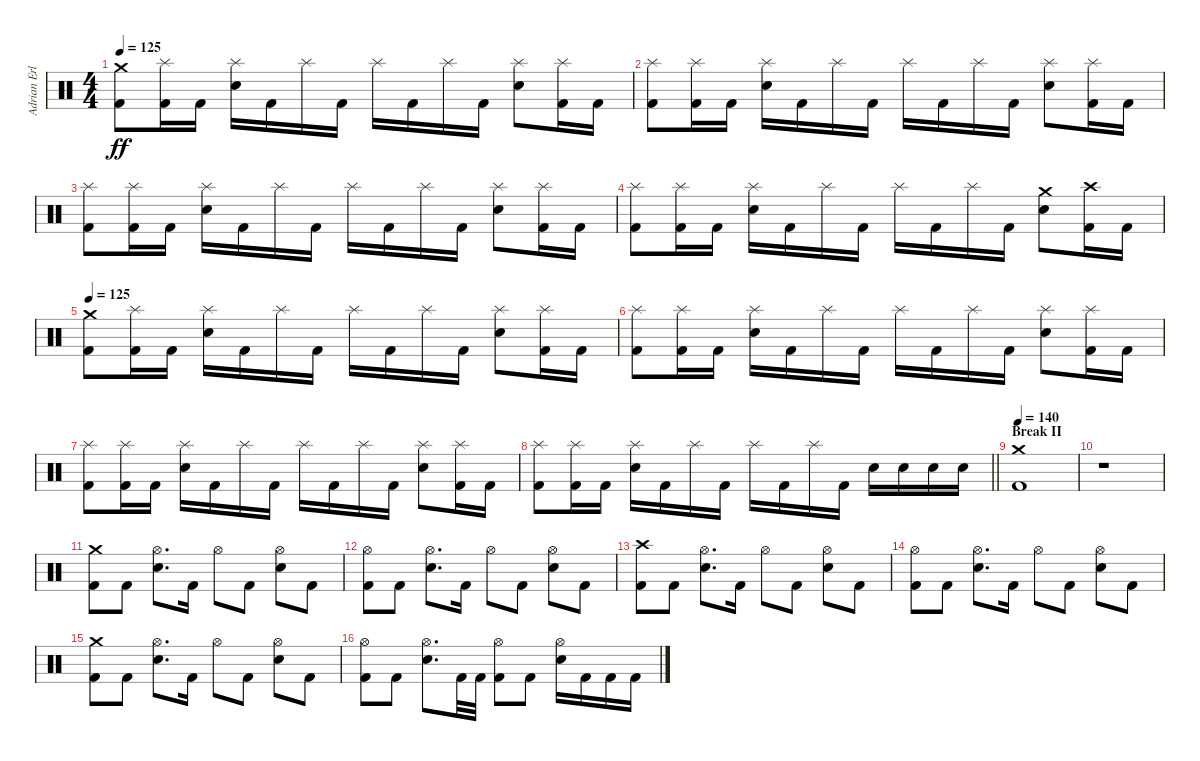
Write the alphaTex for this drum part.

\track ("Adrian Erlandsson" "Adrian Erl") {instrument percussion}
\staff {score}
\articulation defaults
\ts (4 4)
\tempo 125
\clef neutral
\ks c
("Kick (hit) 2" "Crash medium (hit)").8{dy ff} ("Kick (hit) 2" "Splash (hit)").16 "Kick (hit) 2".16 ("Electric Snare (hit)" "Splash (hit)").16 "Kick (hit) 2".16 "Splash (hit)".16 "Kick (hit) 2".16 "Splash (hit)".16 "Kick (hit) 2".16 "Splash (hit)".16 "Kick (hit) 2".16 ("Electric Snare (hit)" "Splash (hit)").8 ("Kick (hit) 2" "Splash (hit)").16 "Kick (hit) 2".16 |
("Kick (hit) 2" "Splash (hit)").8 ("Kick (hit) 2" "Splash (hit)").16 "Kick (hit) 2".16 ("Electric Snare (hit)" "Splash (hit)").16 "Kick (hit) 2".16 "Splash (hit)".16 "Kick (hit) 2".16 "Splash (hit)".16 "Kick (hit) 2".16 "Splash (hit)".16 "Kick (hit) 2".16 ("Electric Snare (hit)" "Splash (hit)").8 ("Kick (hit) 2" "Splash (hit)").16 "Kick (hit) 2".16 |
("Kick (hit) 2" "Splash (hit)").8 ("Kick (hit) 2" "Splash (hit)").16 "Kick (hit) 2".16 ("Electric Snare (hit)" "Splash (hit)").16 "Kick (hit) 2".16 "Splash (hit)".16 "Kick (hit) 2".16 "Splash (hit)".16 "Kick (hit) 2".16 "Splash (hit)".16 "Kick (hit) 2".16 ("Electric Snare (hit)" "Splash (hit)").8 ("Kick (hit) 2" "Splash (hit)").16 "Kick (hit) 2".16 |
("Kick (hit) 2" "Splash (hit)").8 ("Kick (hit) 2" "Splash (hit)").16 "Kick (hit) 2".16 ("Electric Snare (hit)" "Splash (hit)").16 "Kick (hit) 2".16 "Splash (hit)".16 "Kick (hit) 2".16 "Splash (hit)".16 "Kick (hit) 2".16 "Splash (hit)".16 "Kick (hit) 2".16 ("Electric Snare (hit)" "Crash medium (hit)").8 ("Kick (hit) 2" "Crash high (hit)").16 "Kick (hit) 2".16 |
\tempo 125
("Kick (hit) 2" "Crash medium (hit)").8 ("Kick (hit) 2" "Splash (hit)").16 "Kick (hit) 2".16 ("Electric Snare (hit)" "Splash (hit)").16 "Kick (hit) 2".16 "Splash (hit)".16 "Kick (hit) 2".16 "Splash (hit)".16 "Kick (hit) 2".16 "Splash (hit)".16 "Kick (hit) 2".16 ("Electric Snare (hit)" "Splash (hit)").8 ("Kick (hit) 2" "Splash (hit)").16 "Kick (hit) 2".16 |
("Kick (hit) 2" "Splash (hit)").8 ("Kick (hit) 2" "Splash (hit)").16 "Kick (hit) 2".16 ("Electric Snare (hit)" "Splash (hit)").16 "Kick (hit) 2".16 "Splash (hit)".16 "Kick (hit) 2".16 "Splash (hit)".16 "Kick (hit) 2".16 "Splash (hit)".16 "Kick (hit) 2".16 ("Electric Snare (hit)" "Splash (hit)").8 ("Kick (hit) 2" "Splash (hit)").16 "Kick (hit) 2".16 |
("Kick (hit) 2" "Splash (hit)").8 ("Kick (hit) 2" "Splash (hit)").16 "Kick (hit) 2".16 ("Electric Snare (hit)" "Splash (hit)").16 "Kick (hit) 2".16 "Splash (hit)".16 "Kick (hit) 2".16 "Splash (hit)".16 "Kick (hit) 2".16 "Splash (hit)".16 "Kick (hit) 2".16 ("Electric Snare (hit)" "Splash (hit)").8 ("Kick (hit) 2" "Splash (hit)").16 "Kick (hit) 2".16 |
\barLineRight lightlight
("Kick (hit) 2" "Splash (hit)").8 ("Kick (hit) 2" "Splash (hit)").16 "Kick (hit) 2".16 ("Electric Snare (hit)" "Splash (hit)").16 "Kick (hit) 2".16 "Splash (hit)".16 "Kick (hit) 2".16 "Splash (hit)".16 "Kick (hit) 2".16 "Splash (hit)".16 "Kick (hit) 2".16 "Electric Snare (hit)".16 "Electric Snare (hit)".16 "Electric Snare (hit)".16 "Electric Snare (hit)".16 |
\section ("" "Break II")
\tempo 140
("Kick (hit) 2" "Crash medium (hit)").1 |
r.1 |
("Kick (hit) 2" "Crash medium (hit)").8 "Kick (hit) 2".8 ("Electric Snare (hit)" "Hi-Hat (open)").8{d} "Kick (hit) 2".16 "Hi-Hat (open)".8 "Kick (hit) 2".8 ("Electric Snare (hit)" "Hi-Hat (open)").8 "Kick (hit) 2".8 |
("Kick (hit) 2" "Hi-Hat (open)").8 "Kick (hit) 2".8 ("Electric Snare (hit)" "Hi-Hat (open)").8{d} "Kick (hit) 2".16 "Hi-Hat (open)".8 "Kick (hit) 2".8 ("Electric Snare (hit)" "Hi-Hat (open)").8 "Kick (hit) 2".8 |
("Kick (hit) 2" "Crash high (hit)").8 "Kick (hit) 2".8 ("Electric Snare (hit)" "Hi-Hat (open)").8{d} "Kick (hit) 2".16 "Hi-Hat (open)".8 "Kick (hit) 2".8 ("Electric Snare (hit)" "Hi-Hat (open)").8 "Kick (hit) 2".8 |
("Kick (hit) 2" "Hi-Hat (open)").8 "Kick (hit) 2".8 ("Electric Snare (hit)" "Hi-Hat (open)").8{d} "Kick (hit) 2".16 "Hi-Hat (open)".8 "Kick (hit) 2".8 ("Electric Snare (hit)" "Hi-Hat (open)").8 "Kick (hit) 2".8 |
("Kick (hit) 2" "Crash medium (hit)").8 "Kick (hit) 2".8 ("Electric Snare (hit)" "Hi-Hat (open)").8{d} "Kick (hit) 2".16 "Hi-Hat (open)".8 "Kick (hit) 2".8 ("Electric Snare (hit)" "Hi-Hat (open)").8 "Kick (hit) 2".8 |
("Kick (hit) 2" "Hi-Hat (open)").8 "Kick (hit) 2".8 ("Electric Snare (hit)" "Hi-Hat (open)").8{d} "Kick (hit) 2".32 "Kick (hit) 2".32 ("Kick (hit) 2" "Hi-Hat (open)").8 "Kick (hit) 2".8 ("Electric Snare (hit)" "Hi-Hat (open)").16 "Kick (hit) 2".16 "Kick (hit) 2".16 "Kick (hit) 2".16
